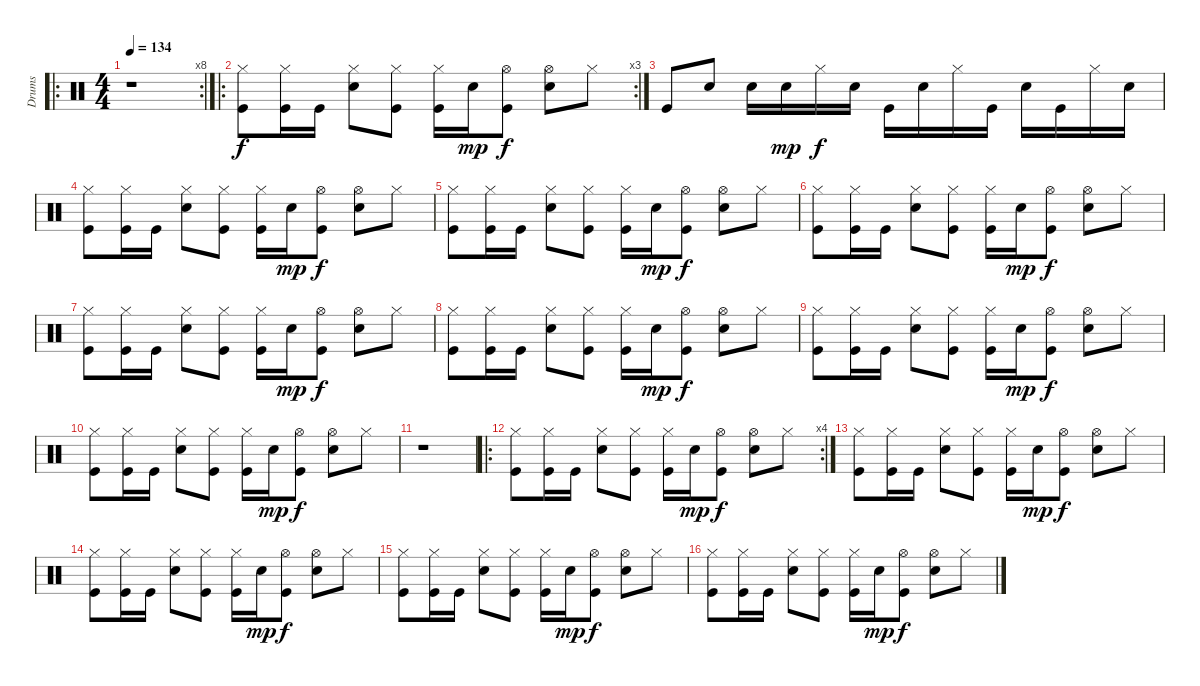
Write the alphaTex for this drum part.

\track ("Drums" "Drums") {instrument percussion}
\staff {score}
\articulation defaults
\ro
\rc 8
\ts (4 4)
\tempo 134
\clef neutral
\ks c
r.1{dy f} |
\ro
\rc 3
("Hi-Hat (closed)" "Kick (hit)").8 ("Hi-Hat (closed)" "Kick (hit)").16 "Kick (hit)".16 ("Hi-Hat (closed)" "Snare (hit) 2").8 ("Hi-Hat (closed)" "Kick (hit)").8 ("Hi-Hat (closed)" "Kick (hit)").16 "Snare (hit) 2".16{dy mp} ("Hi-Hat (open)" "Kick (hit)").8{dy f} ("Hi-Hat (open)" "Snare (hit) 2").8 "Hi-Hat (closed)".8 |
"Kick (hit)".8 "Electric Snare (hit)".8 "Electric Snare (hit)".16 "Electric Snare (hit)".16{dy mp} "Hi-Hat (closed)".16{dy f} "Electric Snare (hit)".16 "Kick (hit)".16 "Electric Snare (hit)".16 "Hi-Hat (closed)".16 "Kick (hit)".16 "Electric Snare (hit)".16 "Kick (hit)".16 "Hi-Hat (closed)".16 "Electric Snare (hit)".16 |
("Hi-Hat (closed)" "Kick (hit)").8 ("Hi-Hat (closed)" "Kick (hit)").16 "Kick (hit)".16 ("Hi-Hat (closed)" "Snare (hit) 2").8 ("Hi-Hat (closed)" "Kick (hit)").8 ("Hi-Hat (closed)" "Kick (hit)").16 "Snare (hit) 2".16{dy mp} ("Hi-Hat (open)" "Kick (hit)").8{dy f} ("Hi-Hat (open)" "Snare (hit) 2").8 "Hi-Hat (closed)".8 |
("Hi-Hat (closed)" "Kick (hit)").8 ("Hi-Hat (closed)" "Kick (hit)").16 "Kick (hit)".16 ("Hi-Hat (closed)" "Snare (hit) 2").8 ("Hi-Hat (closed)" "Kick (hit)").8 ("Hi-Hat (closed)" "Kick (hit)").16 "Snare (hit) 2".16{dy mp} ("Hi-Hat (open)" "Kick (hit)").8{dy f} ("Hi-Hat (open)" "Snare (hit) 2").8 "Hi-Hat (closed)".8 |
("Hi-Hat (closed)" "Kick (hit)").8 ("Hi-Hat (closed)" "Kick (hit)").16 "Kick (hit)".16 ("Hi-Hat (closed)" "Snare (hit) 2").8 ("Hi-Hat (closed)" "Kick (hit)").8 ("Hi-Hat (closed)" "Kick (hit)").16 "Snare (hit) 2".16{dy mp} ("Hi-Hat (open)" "Kick (hit)").8{dy f} ("Hi-Hat (open)" "Snare (hit) 2").8 "Hi-Hat (closed)".8 |
("Hi-Hat (closed)" "Kick (hit)").8 ("Hi-Hat (closed)" "Kick (hit)").16 "Kick (hit)".16 ("Hi-Hat (closed)" "Snare (hit) 2").8 ("Hi-Hat (closed)" "Kick (hit)").8 ("Hi-Hat (closed)" "Kick (hit)").16 "Snare (hit) 2".16{dy mp} ("Hi-Hat (open)" "Kick (hit)").8{dy f} ("Hi-Hat (open)" "Snare (hit) 2").8 "Hi-Hat (closed)".8 |
("Hi-Hat (closed)" "Kick (hit)").8 ("Hi-Hat (closed)" "Kick (hit)").16 "Kick (hit)".16 ("Hi-Hat (closed)" "Snare (hit) 2").8 ("Hi-Hat (closed)" "Kick (hit)").8 ("Hi-Hat (closed)" "Kick (hit)").16 "Snare (hit) 2".16{dy mp} ("Hi-Hat (open)" "Kick (hit)").8{dy f} ("Hi-Hat (open)" "Snare (hit) 2").8 "Hi-Hat (closed)".8 |
("Hi-Hat (closed)" "Kick (hit)").8 ("Hi-Hat (closed)" "Kick (hit)").16 "Kick (hit)".16 ("Hi-Hat (closed)" "Snare (hit) 2").8 ("Hi-Hat (closed)" "Kick (hit)").8 ("Hi-Hat (closed)" "Kick (hit)").16 "Snare (hit) 2".16{dy mp} ("Hi-Hat (open)" "Kick (hit)").8{dy f} ("Hi-Hat (open)" "Snare (hit) 2").8 "Hi-Hat (closed)".8 |
("Hi-Hat (closed)" "Kick (hit)").8 ("Hi-Hat (closed)" "Kick (hit)").16 "Kick (hit)".16 ("Hi-Hat (closed)" "Snare (hit) 2").8 ("Hi-Hat (closed)" "Kick (hit)").8 ("Hi-Hat (closed)" "Kick (hit)").16 "Snare (hit) 2".16{dy mp} ("Hi-Hat (open)" "Kick (hit)").8{dy f} ("Hi-Hat (open)" "Snare (hit) 2").8 "Hi-Hat (closed)".8 |
r.1 |
\ro
\rc 4
("Hi-Hat (closed)" "Kick (hit)").8 ("Hi-Hat (closed)" "Kick (hit)").16 "Kick (hit)".16 ("Hi-Hat (closed)" "Snare (hit) 2").8 ("Hi-Hat (closed)" "Kick (hit)").8 ("Hi-Hat (closed)" "Kick (hit)").16 "Snare (hit) 2".16{dy mp} ("Hi-Hat (open)" "Kick (hit)").8{dy f} ("Hi-Hat (open)" "Snare (hit) 2").8 "Hi-Hat (closed)".8 |
("Hi-Hat (closed)" "Kick (hit)").8 ("Hi-Hat (closed)" "Kick (hit)").16 "Kick (hit)".16 ("Hi-Hat (closed)" "Snare (hit) 2").8 ("Hi-Hat (closed)" "Kick (hit)").8 ("Hi-Hat (closed)" "Kick (hit)").16 "Snare (hit) 2".16{dy mp} ("Hi-Hat (open)" "Kick (hit)").8{dy f} ("Hi-Hat (open)" "Snare (hit) 2").8 "Hi-Hat (closed)".8 |
("Hi-Hat (closed)" "Kick (hit)").8 ("Hi-Hat (closed)" "Kick (hit)").16 "Kick (hit)".16 ("Hi-Hat (closed)" "Snare (hit) 2").8 ("Hi-Hat (closed)" "Kick (hit)").8 ("Hi-Hat (closed)" "Kick (hit)").16 "Snare (hit) 2".16{dy mp} ("Hi-Hat (open)" "Kick (hit)").8{dy f} ("Hi-Hat (open)" "Snare (hit) 2").8 "Hi-Hat (closed)".8 |
("Hi-Hat (closed)" "Kick (hit)").8 ("Hi-Hat (closed)" "Kick (hit)").16 "Kick (hit)".16 ("Hi-Hat (closed)" "Snare (hit) 2").8 ("Hi-Hat (closed)" "Kick (hit)").8 ("Hi-Hat (closed)" "Kick (hit)").16 "Snare (hit) 2".16{dy mp} ("Hi-Hat (open)" "Kick (hit)").8{dy f} ("Hi-Hat (open)" "Snare (hit) 2").8 "Hi-Hat (closed)".8 |
("Hi-Hat (closed)" "Kick (hit)").8 ("Hi-Hat (closed)" "Kick (hit)").16 "Kick (hit)".16 ("Hi-Hat (closed)" "Snare (hit) 2").8 ("Hi-Hat (closed)" "Kick (hit)").8 ("Hi-Hat (closed)" "Kick (hit)").16 "Snare (hit) 2".16{dy mp} ("Hi-Hat (open)" "Kick (hit)").8{dy f} ("Hi-Hat (open)" "Snare (hit) 2").8 "Hi-Hat (closed)".8
